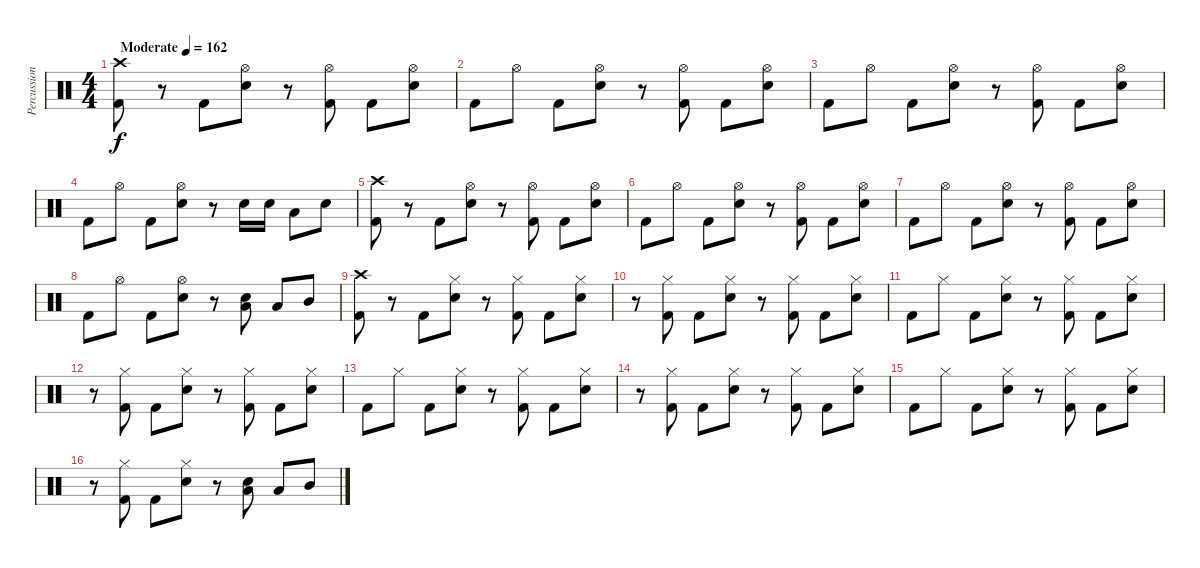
\track ("Percussion" "Percussion") {instrument percussion}
\staff {score}
\articulation defaults
\ts (4 4)
\tempo (162 "Moderate")
\clef neutral
\ks c
("Crash high (hit)" "Kick (hit) 2").8{dy f} r.8 "Kick (hit) 2".8 ("Hi-Hat (open)" "Snare (hit) 2").8 r.8 ("Hi-Hat (open)" "Kick (hit) 2").8 "Kick (hit) 2".8 ("Hi-Hat (open)" "Snare (hit) 2").8 |
"Kick (hit) 2".8 "Hi-Hat (open)".8 "Kick (hit) 2".8 ("Hi-Hat (open)" "Snare (hit) 2").8 r.8 ("Hi-Hat (open)" "Kick (hit) 2").8 "Kick (hit) 2".8 ("Hi-Hat (open)" "Snare (hit) 2").8 |
"Kick (hit) 2".8 "Hi-Hat (open)".8 "Kick (hit) 2".8 ("Hi-Hat (open)" "Snare (hit) 2").8 r.8 ("Hi-Hat (open)" "Kick (hit) 2").8 "Kick (hit) 2".8 ("Hi-Hat (open)" "Snare (hit) 2").8 |
"Kick (hit) 2".8 "Hi-Hat (open)".8 "Kick (hit) 2".8 ("Hi-Hat (open)" "Snare (hit) 2").8 r.8 "Snare (hit) 2".16 "Snare (hit) 2".16 "Low Floor Tom (hit)".8 "Snare (hit) 2".8 |
("Crash high (hit)" "Kick (hit) 2").8 r.8 "Kick (hit) 2".8 ("Hi-Hat (open)" "Snare (hit) 2").8 r.8 ("Hi-Hat (open)" "Kick (hit) 2").8 "Kick (hit) 2".8 ("Hi-Hat (open)" "Snare (hit) 2").8 |
"Kick (hit) 2".8 "Hi-Hat (open)".8 "Kick (hit) 2".8 ("Hi-Hat (open)" "Snare (hit) 2").8 r.8 ("Hi-Hat (open)" "Kick (hit) 2").8 "Kick (hit) 2".8 ("Hi-Hat (open)" "Snare (hit) 2").8 |
"Kick (hit) 2".8 "Hi-Hat (open)".8 "Kick (hit) 2".8 ("Hi-Hat (open)" "Snare (hit) 2").8 r.8 ("Hi-Hat (open)" "Kick (hit) 2").8 "Kick (hit) 2".8 ("Hi-Hat (open)" "Snare (hit) 2").8 |
"Kick (hit) 2".8 "Hi-Hat (open)".8 "Kick (hit) 2".8 ("Hi-Hat (open)" "Snare (hit) 2").8 r.8 ("Low Floor Tom (hit)" "Snare (hit) 2").8 "Low Tom (hit)".8 "Mid Tom (hit)".8 |
("Crash high (hit)" "Kick (hit) 2").8 r.8 "Kick (hit) 2".8 ("Hi-Hat (closed)" "Snare (hit) 2").8 r.8 ("Hi-Hat (closed)" "Kick (hit) 2").8 "Kick (hit) 2".8 ("Hi-Hat (closed)" "Snare (hit) 2").8 |
r.8 ("Hi-Hat (closed)" "Kick (hit) 2").8 "Kick (hit) 2".8 ("Hi-Hat (closed)" "Snare (hit) 2").8 r.8 ("Hi-Hat (closed)" "Kick (hit) 2").8 "Kick (hit) 2".8 ("Hi-Hat (closed)" "Snare (hit) 2").8 |
"Kick (hit) 2".8 "Hi-Hat (closed)".8 "Kick (hit) 2".8 ("Hi-Hat (closed)" "Snare (hit) 2").8 r.8 ("Hi-Hat (closed)" "Kick (hit) 2").8 "Kick (hit) 2".8 ("Hi-Hat (closed)" "Snare (hit) 2").8 |
r.8 ("Hi-Hat (closed)" "Kick (hit) 2").8 "Kick (hit) 2".8 ("Hi-Hat (closed)" "Snare (hit) 2").8 r.8 ("Hi-Hat (closed)" "Kick (hit) 2").8 "Kick (hit) 2".8 ("Hi-Hat (closed)" "Snare (hit) 2").8 |
"Kick (hit) 2".8 "Hi-Hat (closed)".8 "Kick (hit) 2".8 ("Hi-Hat (closed)" "Snare (hit) 2").8 r.8 ("Hi-Hat (closed)" "Kick (hit) 2").8 "Kick (hit) 2".8 ("Hi-Hat (closed)" "Snare (hit) 2").8 |
r.8 ("Hi-Hat (closed)" "Kick (hit) 2").8 "Kick (hit) 2".8 ("Hi-Hat (closed)" "Snare (hit) 2").8 r.8 ("Hi-Hat (closed)" "Kick (hit) 2").8 "Kick (hit) 2".8 ("Hi-Hat (closed)" "Snare (hit) 2").8 |
"Kick (hit) 2".8 "Hi-Hat (closed)".8 "Kick (hit) 2".8 ("Hi-Hat (closed)" "Snare (hit) 2").8 r.8 ("Hi-Hat (closed)" "Kick (hit) 2").8 "Kick (hit) 2".8 ("Hi-Hat (closed)" "Snare (hit) 2").8 |
r.8 ("Hi-Hat (closed)" "Kick (hit) 2").8 "Kick (hit) 2".8 ("Hi-Hat (closed)" "Snare (hit) 2").8 r.8 ("Low Floor Tom (hit)" "Snare (hit) 2").8 "Low Tom (hit)".8 "Mid Tom (hit)".8
